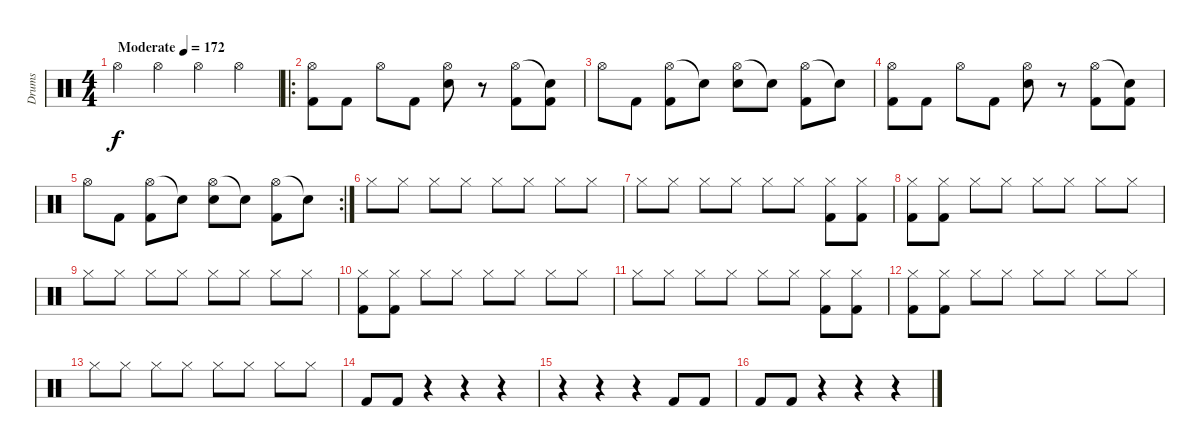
\track ("Drums" "Drums") {instrument percussion}
\staff {score}
\articulation defaults
\ts (4 4)
\tempo (172 "Moderate")
\clef neutral
\ks c "Hi-Hat (open)".4{dy f} "Hi-Hat (open)".4 "Hi-Hat (open)".4 "Hi-Hat (open)".4
|
\ro
("Hi-Hat (open)" "Kick (hit) 2").8 "Kick (hit) 2".8 "Hi-Hat (open)".8 "Kick (hit) 2".8 ("Hi-Hat (open)" "Electric Snare (hit)").8 r.8 ("Hi-Hat (open)" "Kick (hit) 2").8 ("Snare (hit)"{t} "Kick (hit) 2").8 |
"Hi-Hat (open)".8 "Kick (hit) 2".8 ("Hi-Hat (open)" "Kick (hit) 2").8 "Snare (hit)"{t}.8 ("Hi-Hat (open)" "Electric Snare (hit)").8 "Snare (hit)"{t}.8 ("Hi-Hat (open)" "Kick (hit) 2").8 "Snare (hit)"{t}.8 |
("Hi-Hat (open)" "Kick (hit) 2").8 "Kick (hit) 2".8 "Hi-Hat (open)".8 "Kick (hit) 2".8 ("Hi-Hat (open)" "Electric Snare (hit)").8 r.8 ("Hi-Hat (open)" "Kick (hit) 2").8 ("Snare (hit)"{t} "Kick (hit) 2").8 |
\rc 2 "Hi-Hat (open)".8 "Kick (hit) 2".8
("Hi-Hat (open)" "Kick (hit) 2").8 "Snare (hit)"{t}.8 ("Hi-Hat (open)" "Electric Snare (hit)").8 "Snare (hit)"{t}.8 ("Hi-Hat (open)" "Kick (hit) 2").8 "Snare (hit)"{t}.8 |
"Hi-Hat (closed)".8 "Hi-Hat (closed)".8 "Hi-Hat (closed)".8 "Hi-Hat (closed)".8 "Hi-Hat (closed)".8 "Hi-Hat (closed)".8 "Hi-Hat (closed)".8 "Hi-Hat (closed)".8 |
"Hi-Hat (closed)".8 "Hi-Hat (closed)".8 "Hi-Hat (closed)".8 "Hi-Hat (closed)".8 "Hi-Hat (closed)".8 "Hi-Hat (closed)".8 ("Hi-Hat (closed)" "Kick (hit) 2").8 ("Hi-Hat (closed)" "Kick (hit) 2").8 |
("Hi-Hat (closed)" "Kick (hit) 2").8 ("Hi-Hat (closed)" "Kick (hit) 2").8 "Hi-Hat (closed)".8 "Hi-Hat (closed)".8 "Hi-Hat (closed)".8 "Hi-Hat (closed)".8 "Hi-Hat (closed)".8 "Hi-Hat (closed)".8 |
"Hi-Hat (closed)".8 "Hi-Hat (closed)".8 "Hi-Hat (closed)".8 "Hi-Hat (closed)".8 "Hi-Hat (closed)".8 "Hi-Hat (closed)".8 "Hi-Hat (closed)".8 "Hi-Hat (closed)".8 |
("Hi-Hat (closed)" "Kick (hit) 2").8 ("Hi-Hat (closed)" "Kick (hit) 2").8 "Hi-Hat (closed)".8 "Hi-Hat (closed)".8 "Hi-Hat (closed)".8 "Hi-Hat (closed)".8 "Hi-Hat (closed)".8 "Hi-Hat (closed)".8 |
"Hi-Hat (closed)".8 "Hi-Hat (closed)".8 "Hi-Hat (closed)".8 "Hi-Hat (closed)".8 "Hi-Hat (closed)".8 "Hi-Hat (closed)".8 ("Hi-Hat (closed)" "Kick (hit) 2").8 ("Hi-Hat (closed)" "Kick (hit) 2").8 |
("Hi-Hat (closed)" "Kick (hit) 2").8 ("Hi-Hat (closed)" "Kick (hit) 2").8 "Hi-Hat (closed)".8 "Hi-Hat (closed)".8 "Hi-Hat (closed)".8 "Hi-Hat (closed)".8 "Hi-Hat (closed)".8 "Hi-Hat (closed)".8 |
"Hi-Hat (closed)".8 "Hi-Hat (closed)".8 "Hi-Hat (closed)".8 "Hi-Hat (closed)".8 "Hi-Hat (closed)".8 "Hi-Hat (closed)".8 "Hi-Hat (closed)".8 "Hi-Hat (closed)".8 |
"Kick (hit) 2".8 "Kick (hit) 2".8 r.4 r.4 r.4 |
r.4 r.4 r.4 "Kick (hit) 2".8 "Kick (hit) 2".8 |
"Kick (hit) 2".8 "Kick (hit) 2".8 r.4 r.4 r.4
